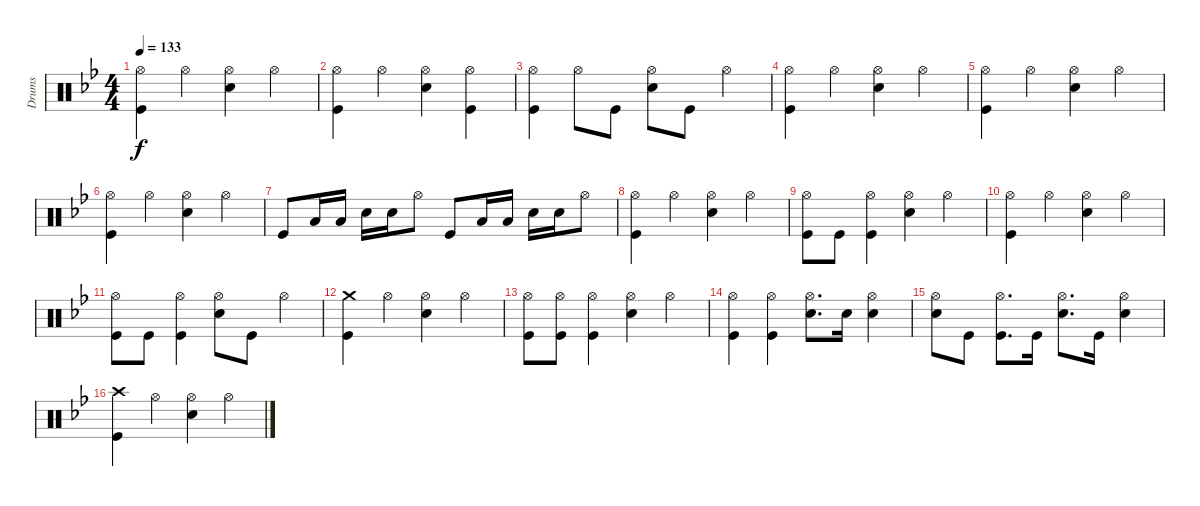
\track ("Drums" "Drums") {instrument percussion}
\staff {score}
\articulation defaults
\ts (4 4)
\tempo 133
\clef neutral
\ks bb
("Hi-Hat (open)" "Kick (hit)").4{dy f} "Hi-Hat (open)".4 ("Hi-Hat (open)" "Snare (hit) 2").4 "Hi-Hat (open)".4 |
("Hi-Hat (open)" "Kick (hit)").4 "Hi-Hat (open)".4 ("Hi-Hat (open)" "Snare (hit) 2").4 ("Hi-Hat (open)" "Kick (hit)").4 |
("Hi-Hat (open)" "Kick (hit)").4 "Hi-Hat (open)".8 "Kick (hit)".8 ("Hi-Hat (open)" "Snare (hit) 2").8 "Kick (hit)".8 "Hi-Hat (open)".4 |
("Hi-Hat (open)" "Kick (hit)").4 "Hi-Hat (open)".4 ("Hi-Hat (open)" "Snare (hit) 2").4 "Hi-Hat (open)".4 |
("Hi-Hat (open)" "Kick (hit)").4 "Hi-Hat (open)".4 ("Hi-Hat (open)" "Snare (hit) 2").4 "Hi-Hat (open)".4 |
("Hi-Hat (open)" "Kick (hit)").4 "Hi-Hat (open)".4 ("Hi-Hat (open)" "Snare (hit) 2").4 "Hi-Hat (open)".4 |
"Kick (hit)".8 "Low Tom (hit)".16 "Low Tom (hit)".16 "Snare (hit) 2".16 "Snare (hit) 2".16 "Hi-Hat (open)".8 "Kick (hit)".8 "Low Tom (hit)".16 "Low Tom (hit)".16 "Snare (hit) 2".16 "Snare (hit) 2".16 "Hi-Hat (open)".8 |
("Hi-Hat (open)" "Kick (hit)").4 "Hi-Hat (open)".4 ("Hi-Hat (open)" "Snare (hit) 2").4 "Hi-Hat (open)".4 |
("Hi-Hat (open)" "Kick (hit)").8 "Kick (hit)".8 ("Hi-Hat (open)" "Kick (hit)").4 ("Hi-Hat (open)" "Snare (hit) 2").4 "Hi-Hat (open)".4 |
("Hi-Hat (open)" "Kick (hit)").4 "Hi-Hat (open)".4 ("Hi-Hat (open)" "Snare (hit) 2").4 "Hi-Hat (open)".4 |
("Hi-Hat (open)" "Kick (hit)").8 "Kick (hit)".8 ("Hi-Hat (open)" "Kick (hit)").4 ("Hi-Hat (open)" "Snare (hit) 2").8 "Kick (hit)".8 "Hi-Hat (open)".4 |
("Crash medium (hit)" "Kick (hit)").4 "Hi-Hat (open)".4 ("Hi-Hat (open)" "Snare (hit) 2").4 "Hi-Hat (open)".4 |
("Hi-Hat (open)" "Kick (hit)").8 ("Hi-Hat (open)" "Kick (hit)").8 ("Hi-Hat (open)" "Kick (hit)").4 ("Hi-Hat (open)" "Snare (hit) 2").4 "Hi-Hat (open)".4 |
("Hi-Hat (open)" "Kick (hit)").4 ("Hi-Hat (open)" "Kick (hit)").4 ("Hi-Hat (open)" "Snare (hit) 2").8{d} "Snare (hit) 2".16 ("Hi-Hat (open)" "Snare (hit) 2").4 |
("Hi-Hat (open)" "Snare (hit) 2").8 "Kick (hit)".8 ("Hi-Hat (open)" "Kick (hit)").8{d} "Kick (hit)".16 ("Hi-Hat (open)" "Snare (hit) 2").8{d} "Kick (hit)".16 ("Hi-Hat (open)" "Snare (hit) 2").4 |
("Crash high (hit)" "Kick (hit)").4 "Hi-Hat (open)".4 ("Hi-Hat (open)" "Snare (hit) 2").4 "Hi-Hat (open)".4
